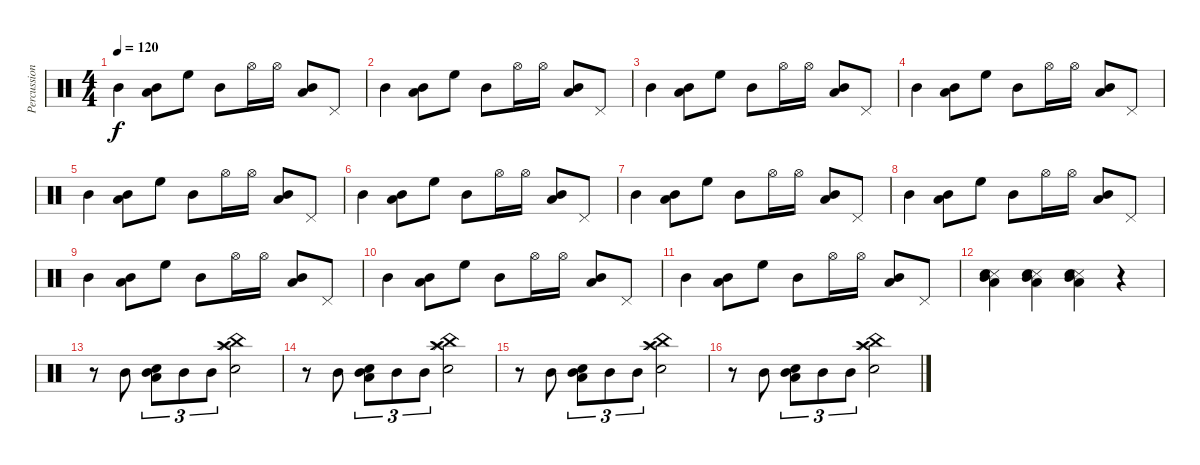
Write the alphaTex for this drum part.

\track ("Percussion" "Percussion") {instrument percussion}
\staff {score}
\articulation defaults
\ts (4 4)
\tempo 120
\clef neutral
\ks c "Mid Tom (hit)".4{dy f}
("Mid Tom (hit)" "Low Floor Tom (hit)").8 "High Floor Tom (hit)".8 "Mid Tom (hit)".8 "Hi-Hat (open)".16 "Hi-Hat (open)".16 ("Mid Tom (hit)" "Low Floor Tom (hit)").8 "Pedal Hi-Hat (hit)".8 |
"Mid Tom (hit)".4 ("Mid Tom (hit)" "Low Floor Tom (hit)").8 "High Floor Tom (hit)".8 "Mid Tom (hit)".8 "Hi-Hat (open)".16 "Hi-Hat (open)".16 ("Mid Tom (hit)" "Low Floor Tom (hit)").8 "Pedal Hi-Hat (hit)".8 |
"Mid Tom (hit)".4 ("Mid Tom (hit)" "Low Floor Tom (hit)").8 "High Floor Tom (hit)".8 "Mid Tom (hit)".8 "Hi-Hat (open)".16 "Hi-Hat (open)".16 ("Mid Tom (hit)" "Low Floor Tom (hit)").8 "Pedal Hi-Hat (hit)".8 |
"Mid Tom (hit)".4 ("Mid Tom (hit)" "Low Floor Tom (hit)").8 "High Floor Tom (hit)".8 "Mid Tom (hit)".8 "Hi-Hat (open)".16 "Hi-Hat (open)".16 ("Mid Tom (hit)" "Low Floor Tom (hit)").8 "Pedal Hi-Hat (hit)".8 |
"Mid Tom (hit)".4 ("Mid Tom (hit)" "Low Floor Tom (hit)").8 "High Floor Tom (hit)".8 "Mid Tom (hit)".8 "Hi-Hat (open)".16 "Hi-Hat (open)".16 ("Mid Tom (hit)" "Low Floor Tom (hit)").8 "Pedal Hi-Hat (hit)".8 |
"Mid Tom (hit)".4 ("Mid Tom (hit)" "Low Floor Tom (hit)").8 "High Floor Tom (hit)".8 "Mid Tom (hit)".8 "Hi-Hat (open)".16 "Hi-Hat (open)".16 ("Mid Tom (hit)" "Low Floor Tom (hit)").8 "Pedal Hi-Hat (hit)".8 |
"Mid Tom (hit)".4 ("Mid Tom (hit)" "Low Floor Tom (hit)").8 "High Floor Tom (hit)".8 "Mid Tom (hit)".8 "Hi-Hat (open)".16 "Hi-Hat (open)".16 ("Mid Tom (hit)" "Low Floor Tom (hit)").8 "Pedal Hi-Hat (hit)".8 |
"Mid Tom (hit)".4 ("Mid Tom (hit)" "Low Floor Tom (hit)").8 "High Floor Tom (hit)".8 "Mid Tom (hit)".8 "Hi-Hat (open)".16 "Hi-Hat (open)".16 ("Mid Tom (hit)" "Low Floor Tom (hit)").8 "Pedal Hi-Hat (hit)".8 |
"Mid Tom (hit)".4 ("Mid Tom (hit)" "Low Floor Tom (hit)").8 "High Floor Tom (hit)".8 "Mid Tom (hit)".8 "Hi-Hat (open)".16 "Hi-Hat (open)".16 ("Mid Tom (hit)" "Low Floor Tom (hit)").8 "Pedal Hi-Hat (hit)".8 |
"Mid Tom (hit)".4 ("Mid Tom (hit)" "Low Floor Tom (hit)").8 "High Floor Tom (hit)".8 "Mid Tom (hit)".8 "Hi-Hat (open)".16 "Hi-Hat (open)".16 ("Mid Tom (hit)" "Low Floor Tom (hit)").8 "Pedal Hi-Hat (hit)".8 |
"Mid Tom (hit)".4 ("Mid Tom (hit)" "Low Floor Tom (hit)").8 "High Floor Tom (hit)".8 "Mid Tom (hit)".8 "Hi-Hat (open)".16 "Hi-Hat (open)".16 ("Mid Tom (hit)" "Low Floor Tom (hit)").8 "Pedal Hi-Hat (hit)".8 |
("Mid Tom (hit)" "Low Tom (hit)" "Snare (side stick) 3" "Snare (hit) 2").4 ("Mid Tom (hit)" "Low Tom (hit)" "Snare (side stick) 3" "Snare (hit) 2").4 ("Mid Tom (hit)" "Low Tom (hit)" "Snare (side stick) 3" "Snare (hit) 2").4 r.4 |
r.8 "Mid Tom (hit)".8 ("Mid Tom (hit)" "Snare (hit) 2" "Low Floor Tom (hit)").8{tu (3 2)} "Mid Tom (hit)".8{tu (3 2)} "Mid Tom (hit)".8{tu (3 2)} ("Crash high (hit)" "China (hit)" "Splash (hit)" "Snare (hit) 2").2 |
r.8 "Mid Tom (hit)".8 ("Mid Tom (hit)" "Snare (hit) 2" "Low Floor Tom (hit)").8{tu (3 2)} "Mid Tom (hit)".8{tu (3 2)} "Mid Tom (hit)".8{tu (3 2)} ("Crash high (hit)" "China (hit)" "Splash (hit)" "Snare (hit) 2").2 |
r.8 "Mid Tom (hit)".8 ("Mid Tom (hit)" "Snare (hit) 2" "Low Floor Tom (hit)").8{tu (3 2)} "Mid Tom (hit)".8{tu (3 2)} "Mid Tom (hit)".8{tu (3 2)} ("Crash high (hit)" "China (hit)" "Splash (hit)" "Snare (hit) 2").2 |
r.8 "Mid Tom (hit)".8 ("Mid Tom (hit)" "Snare (hit) 2" "Low Floor Tom (hit)").8{tu (3 2)} "Mid Tom (hit)".8{tu (3 2)} "Mid Tom (hit)".8{tu (3 2)} ("Crash high (hit)" "China (hit)" "Splash (hit)" "Snare (hit) 2").2
